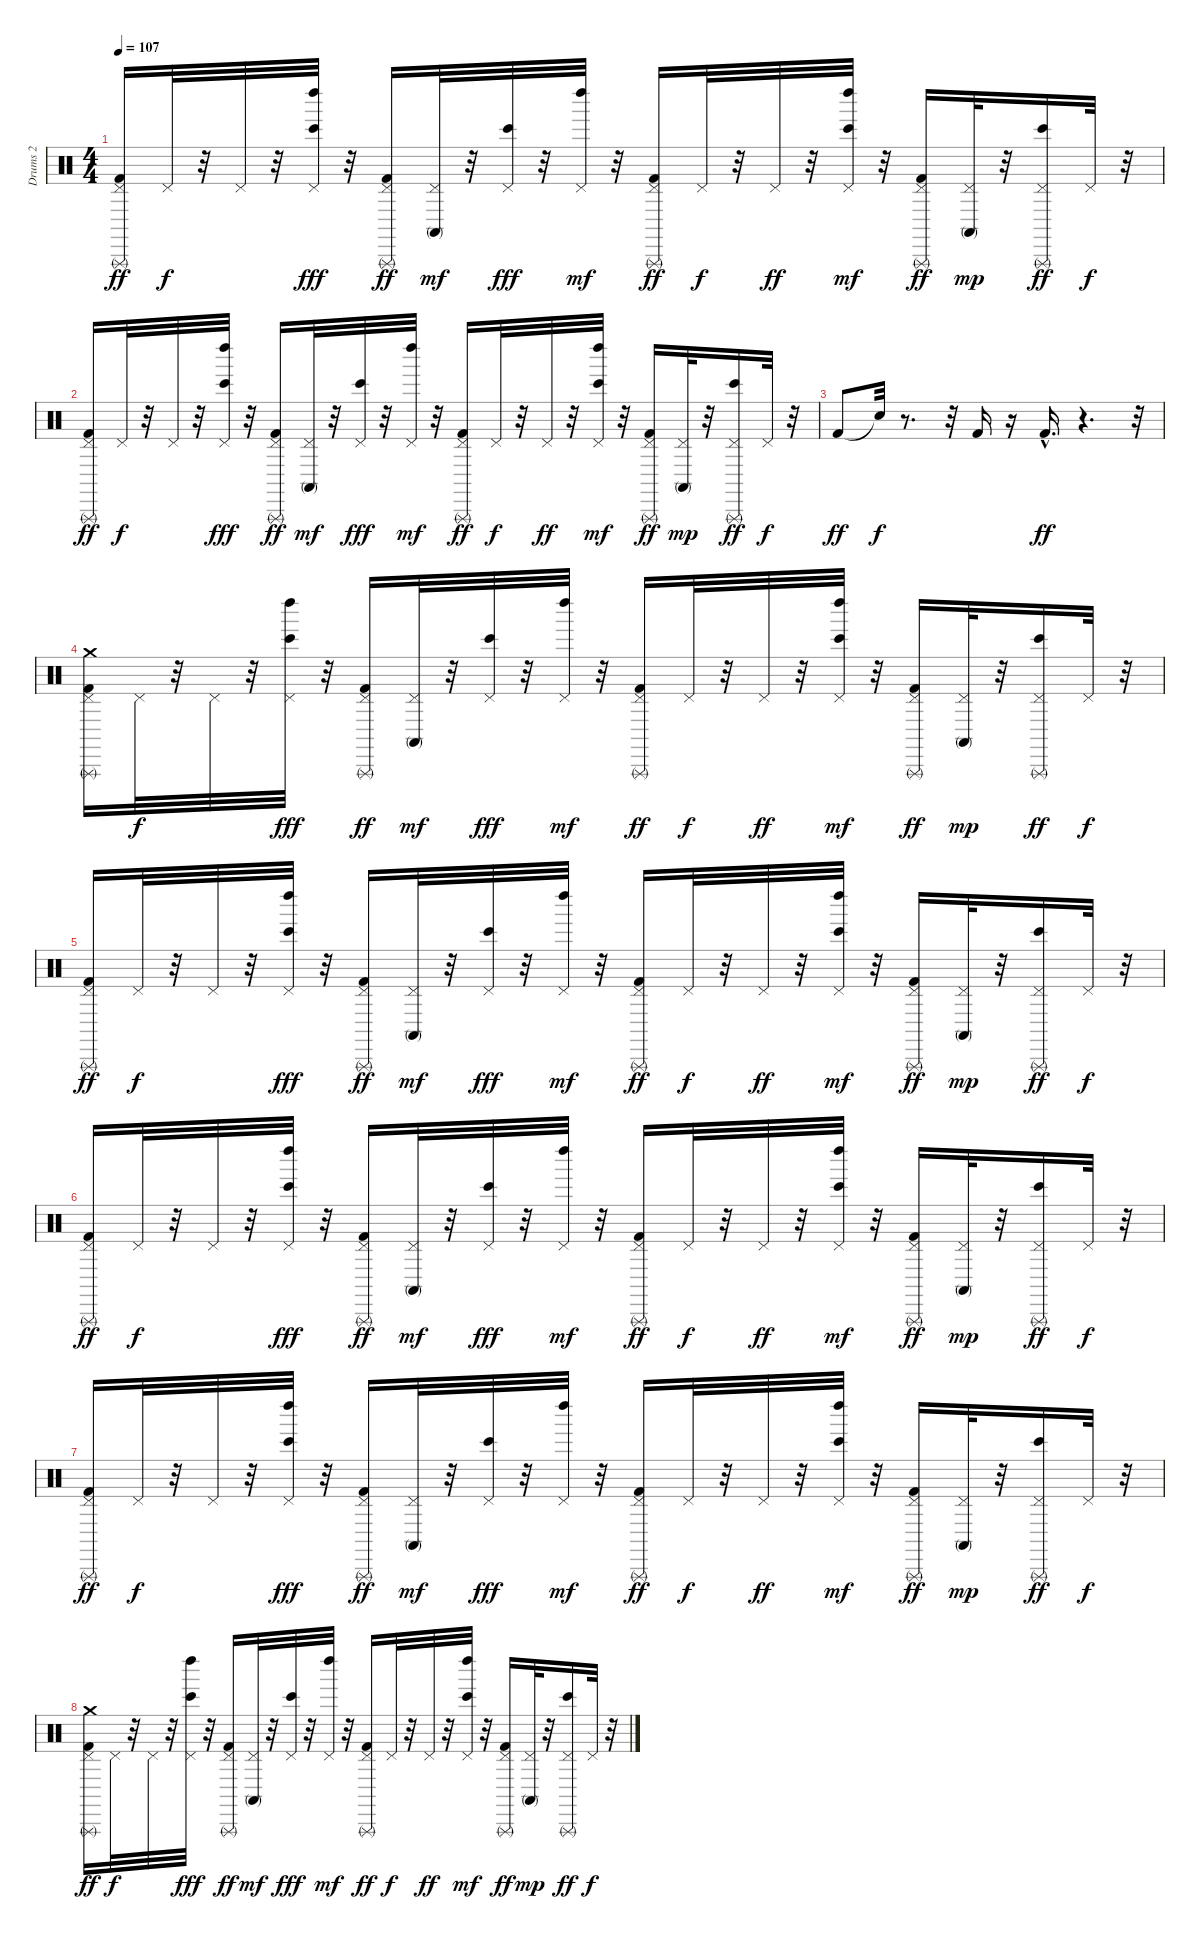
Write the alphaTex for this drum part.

\track ("Drums 2" "Drums 2") {instrument percussion}
\staff {score}
\articulation defaults
\ts (4 4)
\tempo 107
\clef neutral
\ks c
("Kick (hit) 2" "Pedal Hi-Hat (hit)" "Triangle (rnute)").16{dy ff} "Pedal Hi-Hat (hit)".32{dy f} r.32 "Pedal Hi-Hat (hit)".32 r.32 ("Pedal Hi-Hat (hit)" "Bongo High (hit)" "Left Maraca (hit)").32{dy fff} r.32 ("Kick (hit) 2" "Pedal Hi-Hat (hit)" "Triangle (rnute)").16{dy ff} ("Pedal Hi-Hat (hit)" "Conga high (mute)").32{dy mf} r.32 ("Pedal Hi-Hat (hit)" "Bongo High (hit)").32{dy fff} r.32 ("Pedal Hi-Hat (hit)" "Left Maraca (hit)").32{dy mf} r.32 ("Kick (hit) 2" "Pedal Hi-Hat (hit)" "Triangle (rnute)").16{dy ff} "Pedal Hi-Hat (hit)".32{dy f} r.32 "Pedal Hi-Hat (hit)".32{dy ff} r.32 ("Pedal Hi-Hat (hit)" "Bongo High (hit)" "Left Maraca (hit)").32{dy mf} r.32 ("Kick (hit) 2" "Pedal Hi-Hat (hit)" "Triangle (rnute)").16{dy ff} ("Pedal Hi-Hat (hit)" "Conga high (mute)").32{dy mp} r.32 ("Pedal Hi-Hat (hit)" "Bongo High (hit)" "Triangle (rnute)").16{dy ff} "Pedal Hi-Hat (hit)".32{dy f} r.32 |
("Kick (hit) 2" "Pedal Hi-Hat (hit)" "Triangle (rnute)").16{dy ff} "Pedal Hi-Hat (hit)".32{dy f} r.32 "Pedal Hi-Hat (hit)".32 r.32 ("Pedal Hi-Hat (hit)" "Bongo High (hit)" "Left Maraca (hit)").32{dy fff} r.32 ("Kick (hit) 2" "Pedal Hi-Hat (hit)" "Triangle (rnute)").16{dy ff} ("Pedal Hi-Hat (hit)" "Conga high (mute)").32{dy mf} r.32 ("Pedal Hi-Hat (hit)" "Bongo High (hit)").32{dy fff} r.32 ("Pedal Hi-Hat (hit)" "Left Maraca (hit)").32{dy mf} r.32 ("Kick (hit) 2" "Pedal Hi-Hat (hit)" "Triangle (rnute)").16{dy ff} "Pedal Hi-Hat (hit)".32{dy f} r.32 "Pedal Hi-Hat (hit)".32{dy ff} r.32 ("Pedal Hi-Hat (hit)" "Bongo High (hit)" "Left Maraca (hit)").32{dy mf} r.32 ("Kick (hit) 2" "Pedal Hi-Hat (hit)" "Triangle (rnute)").16{dy ff} ("Pedal Hi-Hat (hit)" "Conga high (mute)").32{dy mp} r.32 ("Pedal Hi-Hat (hit)" "Bongo High (hit)" "Triangle (rnute)").16{dy ff} "Pedal Hi-Hat (hit)".32{dy f} r.32 |
"Kick (hit) 2".8{dy ff} "Snare (hit)"{t}.32{dy f} r.8{d} r.32 "Kick (hit) 2".16 r.16 "Kick (hit) 2"{hac}.16{d dy ff} r.4{d} r.32 |
("Kick (hit) 2" "Pedal Hi-Hat (hit)" "Triangle (rnute)" "Crash medium (hit)").16 "Pedal Hi-Hat (hit)".32{dy f} r.32 "Pedal Hi-Hat (hit)".32 r.32 ("Pedal Hi-Hat (hit)" "Bongo High (hit)" "Left Maraca (hit)").32{dy fff} r.32 ("Kick (hit) 2" "Pedal Hi-Hat (hit)" "Triangle (rnute)").16{dy ff} ("Pedal Hi-Hat (hit)" "Conga high (mute)").32{dy mf} r.32 ("Pedal Hi-Hat (hit)" "Bongo High (hit)").32{dy fff} r.32 ("Pedal Hi-Hat (hit)" "Left Maraca (hit)").32{dy mf} r.32 ("Kick (hit) 2" "Pedal Hi-Hat (hit)" "Triangle (rnute)").16{dy ff} "Pedal Hi-Hat (hit)".32{dy f} r.32 "Pedal Hi-Hat (hit)".32{dy ff} r.32 ("Pedal Hi-Hat (hit)" "Bongo High (hit)" "Left Maraca (hit)").32{dy mf} r.32 ("Kick (hit) 2" "Pedal Hi-Hat (hit)" "Triangle (rnute)").16{dy ff} ("Pedal Hi-Hat (hit)" "Conga high (mute)").32{dy mp} r.32 ("Pedal Hi-Hat (hit)" "Bongo High (hit)" "Triangle (rnute)").16{dy ff} "Pedal Hi-Hat (hit)".32{dy f} r.32 |
("Kick (hit) 2" "Pedal Hi-Hat (hit)" "Triangle (rnute)").16{dy ff} "Pedal Hi-Hat (hit)".32{dy f} r.32 "Pedal Hi-Hat (hit)".32 r.32 ("Pedal Hi-Hat (hit)" "Bongo High (hit)" "Left Maraca (hit)").32{dy fff} r.32 ("Kick (hit) 2" "Pedal Hi-Hat (hit)" "Triangle (rnute)").16{dy ff} ("Pedal Hi-Hat (hit)" "Conga high (mute)").32{dy mf} r.32 ("Pedal Hi-Hat (hit)" "Bongo High (hit)").32{dy fff} r.32 ("Pedal Hi-Hat (hit)" "Left Maraca (hit)").32{dy mf} r.32 ("Kick (hit) 2" "Pedal Hi-Hat (hit)" "Triangle (rnute)").16{dy ff} "Pedal Hi-Hat (hit)".32{dy f} r.32 "Pedal Hi-Hat (hit)".32{dy ff} r.32 ("Pedal Hi-Hat (hit)" "Bongo High (hit)" "Left Maraca (hit)").32{dy mf} r.32 ("Kick (hit) 2" "Pedal Hi-Hat (hit)" "Triangle (rnute)").16{dy ff} ("Pedal Hi-Hat (hit)" "Conga high (mute)").32{dy mp} r.32 ("Pedal Hi-Hat (hit)" "Bongo High (hit)" "Triangle (rnute)").16{dy ff} "Pedal Hi-Hat (hit)".32{dy f} r.32 |
("Kick (hit) 2" "Pedal Hi-Hat (hit)" "Triangle (rnute)").16{dy ff} "Pedal Hi-Hat (hit)".32{dy f} r.32 "Pedal Hi-Hat (hit)".32 r.32 ("Pedal Hi-Hat (hit)" "Bongo High (hit)" "Left Maraca (hit)").32{dy fff} r.32 ("Kick (hit) 2" "Pedal Hi-Hat (hit)" "Triangle (rnute)").16{dy ff} ("Pedal Hi-Hat (hit)" "Conga high (mute)").32{dy mf} r.32 ("Pedal Hi-Hat (hit)" "Bongo High (hit)").32{dy fff} r.32 ("Pedal Hi-Hat (hit)" "Left Maraca (hit)").32{dy mf} r.32 ("Kick (hit) 2" "Pedal Hi-Hat (hit)" "Triangle (rnute)").16{dy ff} "Pedal Hi-Hat (hit)".32{dy f} r.32 "Pedal Hi-Hat (hit)".32{dy ff} r.32 ("Pedal Hi-Hat (hit)" "Bongo High (hit)" "Left Maraca (hit)").32{dy mf} r.32 ("Kick (hit) 2" "Pedal Hi-Hat (hit)" "Triangle (rnute)").16{dy ff} ("Pedal Hi-Hat (hit)" "Conga high (mute)").32{dy mp} r.32 ("Pedal Hi-Hat (hit)" "Bongo High (hit)" "Triangle (rnute)").16{dy ff} "Pedal Hi-Hat (hit)".32{dy f} r.32 |
("Kick (hit) 2" "Pedal Hi-Hat (hit)" "Triangle (rnute)").16{dy ff} "Pedal Hi-Hat (hit)".32{dy f} r.32 "Pedal Hi-Hat (hit)".32 r.32 ("Pedal Hi-Hat (hit)" "Bongo High (hit)" "Left Maraca (hit)").32{dy fff} r.32 ("Kick (hit) 2" "Pedal Hi-Hat (hit)" "Triangle (rnute)").16{dy ff} ("Pedal Hi-Hat (hit)" "Conga high (mute)").32{dy mf} r.32 ("Pedal Hi-Hat (hit)" "Bongo High (hit)").32{dy fff} r.32 ("Pedal Hi-Hat (hit)" "Left Maraca (hit)").32{dy mf} r.32 ("Kick (hit) 2" "Pedal Hi-Hat (hit)" "Triangle (rnute)").16{dy ff} "Pedal Hi-Hat (hit)".32{dy f} r.32 "Pedal Hi-Hat (hit)".32{dy ff} r.32 ("Pedal Hi-Hat (hit)" "Bongo High (hit)" "Left Maraca (hit)").32{dy mf} r.32 ("Kick (hit) 2" "Pedal Hi-Hat (hit)" "Triangle (rnute)").16{dy ff} ("Pedal Hi-Hat (hit)" "Conga high (mute)").32{dy mp} r.32 ("Pedal Hi-Hat (hit)" "Bongo High (hit)" "Triangle (rnute)").16{dy ff} "Pedal Hi-Hat (hit)".32{dy f} r.32 |
("Kick (hit) 2" "Pedal Hi-Hat (hit)" "Triangle (rnute)" "Crash medium (hit)").16{dy ff} "Pedal Hi-Hat (hit)".32{dy f} r.32 "Pedal Hi-Hat (hit)".32 r.32 ("Pedal Hi-Hat (hit)" "Bongo High (hit)" "Left Maraca (hit)").32{dy fff} r.32 ("Kick (hit) 2" "Pedal Hi-Hat (hit)" "Triangle (rnute)").16{dy ff} ("Pedal Hi-Hat (hit)" "Conga high (mute)").32{dy mf} r.32 ("Pedal Hi-Hat (hit)" "Bongo High (hit)").32{dy fff} r.32 ("Pedal Hi-Hat (hit)" "Left Maraca (hit)").32{dy mf} r.32 ("Kick (hit) 2" "Pedal Hi-Hat (hit)" "Triangle (rnute)").16{dy ff} "Pedal Hi-Hat (hit)".32{dy f} r.32 "Pedal Hi-Hat (hit)".32{dy ff} r.32 ("Pedal Hi-Hat (hit)" "Bongo High (hit)" "Left Maraca (hit)").32{dy mf} r.32 ("Kick (hit) 2" "Pedal Hi-Hat (hit)" "Triangle (rnute)").16{dy ff} ("Pedal Hi-Hat (hit)" "Conga high (mute)").32{dy mp} r.32 ("Pedal Hi-Hat (hit)" "Bongo High (hit)" "Triangle (rnute)").16{dy ff} "Pedal Hi-Hat (hit)".32{dy f} r.32
